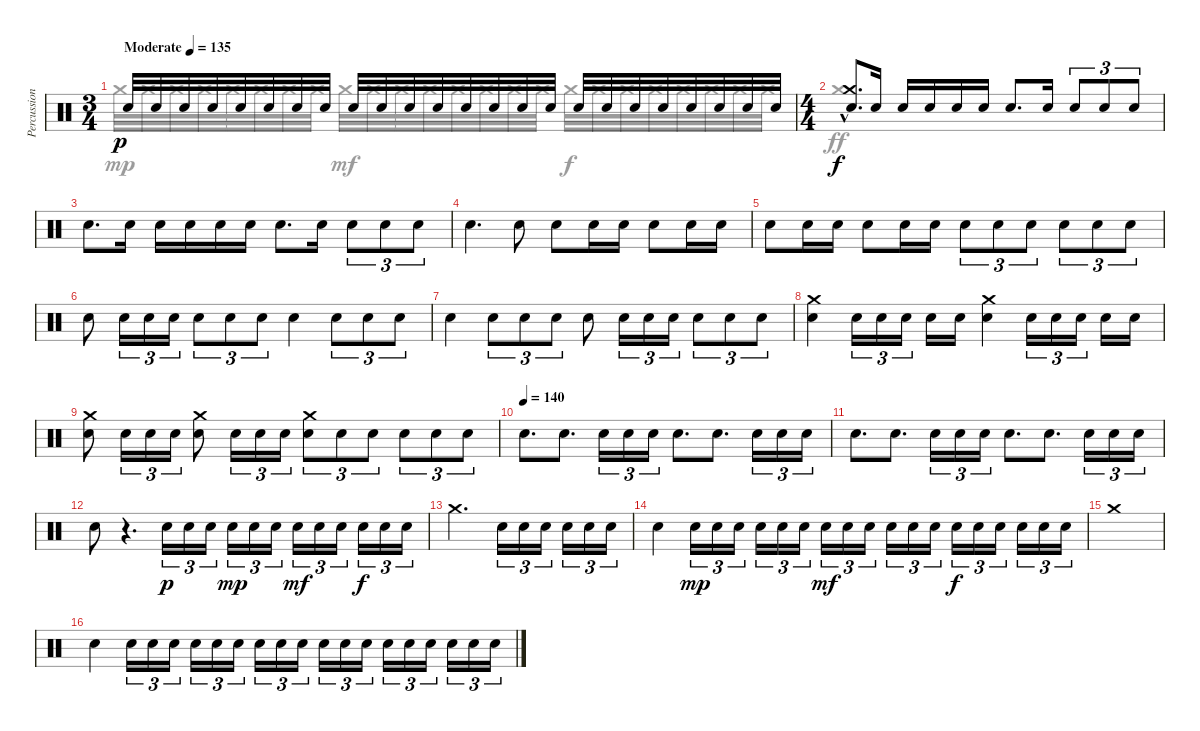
\track ("Percussion" "Percussion") {instrument percussion}
\staff {score}
\articulation defaults
\voice
\ts (3 4)
\tempo (135 "Moderate")
\clef neutral
\ks c "Snare (hit) 2".32{dy p} "Snare (hit) 2".32 "Snare (hit) 2".32 "Snare (hit) 2".32 "Snare (hit) 2".32 "Snare (hit) 2".32 "Snare (hit) 2".32 "Snare (hit) 2".32 "Snare (hit) 2".32 "Snare (hit) 2".32 "Snare (hit) 2".32 "Snare (hit) 2".32 "Snare (hit) 2".32 "Snare (hit) 2".32 "Snare (hit) 2".32 "Snare (hit) 2".32 "Snare (hit) 2".32 "Snare (hit) 2".32 "Snare (hit) 2".32 "Snare (hit) 2".32 "Snare (hit) 2".32 "Snare (hit) 2".32 "Snare (hit) 2".32 "Snare (hit) 2".32
|
\ts (4 4)
("Crash medium (hit)"{hac} "Snare (hit) 2").8{d dy f} "Snare (hit) 2".16 "Snare (hit) 2".16 "Snare (hit) 2".16 "Snare (hit) 2".16 "Snare (hit) 2".16 "Snare (hit) 2".8{d} "Snare (hit) 2".16 "Snare (hit) 2".8{tu (3 2)} "Snare (hit) 2".8{tu (3 2)} "Snare (hit) 2".8{tu (3 2)} |
"Snare (hit) 2".8{d} "Snare (hit) 2".16 "Snare (hit) 2".16 "Snare (hit) 2".16 "Snare (hit) 2".16 "Snare (hit) 2".16 "Snare (hit) 2".8{d} "Snare (hit) 2".16 "Snare (hit) 2".8{tu (3 2)} "Snare (hit) 2".8{tu (3 2)} "Snare (hit) 2".8{tu (3 2)} |
"Snare (hit) 2".4{d} "Snare (hit) 2".8 "Snare (hit) 2".8 "Snare (hit) 2".16 "Snare (hit) 2".16 "Snare (hit) 2".8 "Snare (hit) 2".16 "Snare (hit) 2".16 |
"Snare (hit) 2".8 "Snare (hit) 2".16 "Snare (hit) 2".16 "Snare (hit) 2".8 "Snare (hit) 2".16 "Snare (hit) 2".16 "Snare (hit) 2".8{tu (3 2)} "Snare (hit) 2".8{tu (3 2)} "Snare (hit) 2".8{tu (3 2)} "Snare (hit) 2".8{tu (3 2)} "Snare (hit) 2".8{tu (3 2)} "Snare (hit) 2".8{tu (3 2)} |
"Snare (hit) 2".8 "Snare (hit) 2".16{tu (3 2)} "Snare (hit) 2".16{tu (3 2)} "Snare (hit) 2".16{tu (3 2)} "Snare (hit) 2".8{tu (3 2)} "Snare (hit) 2".8{tu (3 2)} "Snare (hit) 2".8{tu (3 2)} "Snare (hit) 2".4 "Snare (hit) 2".8{tu (3 2)} "Snare (hit) 2".8{tu (3 2)} "Snare (hit) 2".8{tu (3 2)} |
"Snare (hit) 2".4 "Snare (hit) 2".8{tu (3 2)} "Snare (hit) 2".8{tu (3 2)} "Snare (hit) 2".8{tu (3 2)} "Snare (hit) 2".8 "Snare (hit) 2".16{tu (3 2)} "Snare (hit) 2".16{tu (3 2)} "Snare (hit) 2".16{tu (3 2)} "Snare (hit) 2".8{tu (3 2)} "Snare (hit) 2".8{tu (3 2)} "Snare (hit) 2".8{tu (3 2)} |
("Crash medium (hit)" "Snare (hit) 2").4 "Snare (hit) 2".16{tu (3 2)} "Snare (hit) 2".16{tu (3 2)} "Snare (hit) 2".16{tu (3 2) beam splitsecondary} "Snare (hit) 2".16 "Snare (hit) 2".16 ("Crash medium (hit)" "Snare (hit) 2").4 "Snare (hit) 2".16{tu (3 2)} "Snare (hit) 2".16{tu (3 2)} "Snare (hit) 2".16{tu (3 2) beam splitsecondary} "Snare (hit) 2".16 "Snare (hit) 2".16 |
("Crash medium (hit)" "Snare (hit) 2").8 "Snare (hit) 2".16{tu (3 2)} "Snare (hit) 2".16{tu (3 2)} "Snare (hit) 2".16{tu (3 2)} ("Crash medium (hit)" "Snare (hit) 2").8 "Snare (hit) 2".16{tu (3 2)} "Snare (hit) 2".16{tu (3 2)} "Snare (hit) 2".16{tu (3 2)} ("Crash medium (hit)" "Snare (hit) 2").8{tu (3 2)} "Snare (hit) 2".8{tu (3 2)} "Snare (hit) 2".8{tu (3 2)} "Snare (hit) 2".8{tu (3 2)} "Snare (hit) 2".8{tu (3 2)} "Snare (hit) 2".8{tu (3 2)} |
\tempo (140)
"Snare (hit) 2".8{d} "Snare (hit) 2".8{d} "Snare (hit) 2".16{tu (3 2)} "Snare (hit) 2".16{tu (3 2)} "Snare (hit) 2".16{tu (3 2)} "Snare (hit) 2".8{d} "Snare (hit) 2".8{d} "Snare (hit) 2".16{tu (3 2)} "Snare (hit) 2".16{tu (3 2)} "Snare (hit) 2".16{tu (3 2)} |
"Snare (hit) 2".8{d} "Snare (hit) 2".8{d} "Snare (hit) 2".16{tu (3 2)} "Snare (hit) 2".16{tu (3 2)} "Snare (hit) 2".16{tu (3 2)} "Snare (hit) 2".8{d} "Snare (hit) 2".8{d} "Snare (hit) 2".16{tu (3 2)} "Snare (hit) 2".16{tu (3 2)} "Snare (hit) 2".16{tu (3 2)} |
"Snare (hit) 2".8 r.4{d} "Snare (hit) 2".16{tu (3 2) dy p} "Snare (hit) 2".16{tu (3 2)} "Snare (hit) 2".16{tu (3 2) beam splitsecondary} "Snare (hit) 2".16{tu (3 2) dy mp} "Snare (hit) 2".16{tu (3 2)} "Snare (hit) 2".16{tu (3 2)} "Snare (hit) 2".16{tu (3 2) dy mf} "Snare (hit) 2".16{tu (3 2)} "Snare (hit) 2".16{tu (3 2) beam splitsecondary} "Snare (hit) 2".16{tu (3 2) dy f} "Snare (hit) 2".16{tu (3 2)} "Snare (hit) 2".16{tu (3 2)} |
"Crash medium (hit)".2{d} "Snare (hit) 2".16{tu (3 2)} "Snare (hit) 2".16{tu (3 2)} "Snare (hit) 2".16{tu (3 2) beam splitsecondary} "Snare (hit) 2".16{tu (3 2)} "Snare (hit) 2".16{tu (3 2)} "Snare (hit) 2".16{tu (3 2)} |
"Snare (hit) 2".4 "Snare (hit) 2".16{tu (3 2) dy mp} "Snare (hit) 2".16{tu (3 2)} "Snare (hit) 2".16{tu (3 2) beam splitsecondary} "Snare (hit) 2".16{tu (3 2)} "Snare (hit) 2".16{tu (3 2)} "Snare (hit) 2".16{tu (3 2)} "Snare (hit) 2".16{tu (3 2) dy mf} "Snare (hit) 2".16{tu (3 2)} "Snare (hit) 2".16{tu (3 2) beam splitsecondary} "Snare (hit) 2".16{tu (3 2)} "Snare (hit) 2".16{tu (3 2)} "Snare (hit) 2".16{tu (3 2)} "Snare (hit) 2".16{tu (3 2) dy f} "Snare (hit) 2".16{tu (3 2)} "Snare (hit) 2".16{tu (3 2) beam splitsecondary} "Snare (hit) 2".16{tu (3 2)} "Snare (hit) 2".16{tu (3 2)} "Snare (hit) 2".16{tu (3 2)} |
"Crash medium (hit)".1 |
"Snare (hit) 2".4 "Snare (hit) 2".16{tu (3 2)} "Snare (hit) 2".16{tu (3 2)} "Snare (hit) 2".16{tu (3 2) beam splitsecondary} "Snare (hit) 2".16{tu (3 2)} "Snare (hit) 2".16{tu (3 2)} "Snare (hit) 2".16{tu (3 2)} "Snare (hit) 2".16{tu (3 2)} "Snare (hit) 2".16{tu (3 2)} "Snare (hit) 2".16{tu (3 2) beam splitsecondary} "Snare (hit) 2".16{tu (3 2)} "Snare (hit) 2".16{tu (3 2)} "Snare (hit) 2".16{tu (3 2)} "Snare (hit) 2".16{tu (3 2)} "Snare (hit) 2".16{tu (3 2)} "Snare (hit) 2".16{tu (3 2) beam splitsecondary} "Snare (hit) 2".16{tu (3 2)} "Snare (hit) 2".16{tu (3 2)} "Snare (hit) 2".16{tu (3 2)}
\voice
\clef neutral
\ottava regular
\simile none
\ks c "Crash medium (hit)".32{dy mp} "Crash medium (hit)".32 "Crash medium (hit)".32 "Crash medium (hit)".32 "Crash medium (hit)".32 "Crash medium (hit)".32 "Crash medium (hit)".32 "Crash medium (hit)".32 "Crash medium (hit)".32{dy mf} "Crash medium (hit)".32 "Crash medium (hit)".32 "Crash medium (hit)".32 "Crash medium (hit)".32 "Crash medium (hit)".32 "Crash medium (hit)".32 "Crash medium (hit)".32 "Crash medium (hit)".32{dy f} "Crash medium (hit)".32 "Crash medium (hit)".32 "Crash medium (hit)".32 "Crash medium (hit)".32 "Crash medium (hit)".32 "Crash medium (hit)".32 "Crash medium (hit)".32
|
"Crash medium (hit)".1{dy ff} |
|
|
|
|
|
|
|
|
|
|
|
|
|
